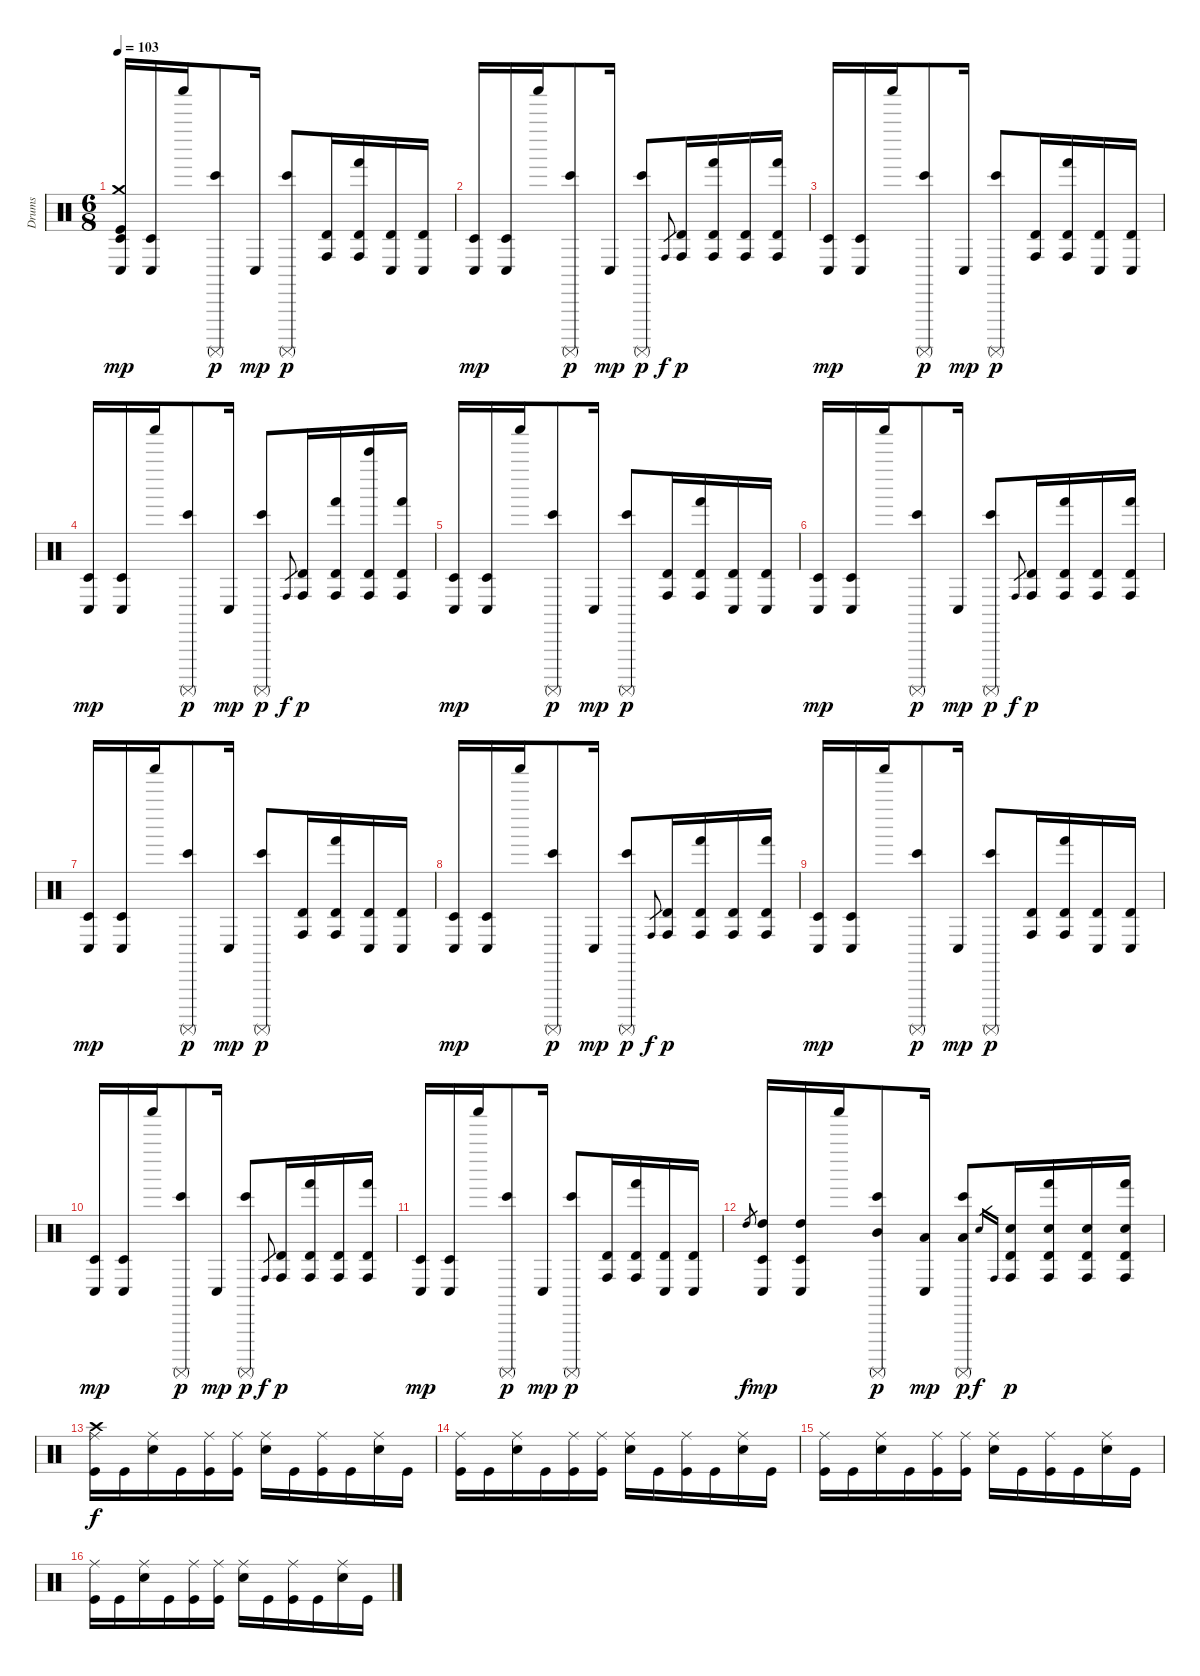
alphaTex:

\track ("Drums" "Drums") {instrument percussion}
\staff {score}
\articulation defaults
\ts (6 8)
\tempo 103
\clef neutral
\ks c
("Crash medium (hit)" "Timbale low (hit)" "Conga low (hit)" "Kick (hit)").16{dy mp} ("Timbale low (hit)" "Conga low (hit)").16 "Shaker (hit)".16 ("Surdo (mute)" "Bongo High (hit)").8{dy p} "Conga low (hit)".16{dy mp} ("Surdo (mute)" "Bongo High (hit)").8{dy p} ("Timbale high (hit)" "Conga high (hit)").16 ("Timbale high (hit)" "Conga high (hit)" "Hand (hit)").16 ("Timbale high (hit)" "Conga low (hit)").16 ("Timbale high (hit)" "Conga low (hit)").16 |
("Timbale low (hit)" "Conga low (hit)").16{dy mp} ("Timbale low (hit)" "Conga low (hit)").16 "Shaker (hit)".16 ("Surdo (mute)" "Bongo High (hit)").8{dy p} "Conga low (hit)".16{dy mp} ("Surdo (mute)" "Bongo High (hit)").8{dy p} "Conga high (hit)".8{gr dy f} ("Timbale high (hit)" "Conga high (hit)").16{dy p} ("Timbale high (hit)" "Conga high (hit)" "Hand (hit)").16 ("Timbale high (hit)" "Conga high (hit)").16 ("Timbale high (hit)" "Conga high (hit)" "Hand (hit)").16 |
("Timbale low (hit)" "Conga low (hit)").16{dy mp} ("Timbale low (hit)" "Conga low (hit)").16 "Shaker (hit)".16 ("Surdo (mute)" "Bongo High (hit)").8{dy p} "Conga low (hit)".16{dy mp} ("Surdo (mute)" "Bongo High (hit)").8{dy p} ("Timbale high (hit)" "Conga high (hit)").16 ("Timbale high (hit)" "Conga high (hit)" "Hand (hit)").16 ("Timbale high (hit)" "Conga low (hit)").16 ("Timbale high (hit)" "Conga low (hit)").16 |
("Timbale low (hit)" "Conga low (hit)").16{dy mp} ("Timbale low (hit)" "Conga low (hit)").16 "Shaker (hit)".16 ("Surdo (mute)" "Bongo High (hit)").8{dy p} "Conga low (hit)".16{dy mp} ("Surdo (mute)" "Bongo High (hit)").8{dy p} "Conga high (hit)".8{gr dy f} ("Timbale high (hit)" "Conga high (hit)").16{dy p} ("Timbale high (hit)" "Conga high (hit)" "Hand (hit)").16 ("Bell Tree (hit)" "Timbale high (hit)" "Conga high (hit)").16 ("Timbale high (hit)" "Conga high (hit)" "Hand (hit)").16 |
("Timbale low (hit)" "Conga low (hit)").16{dy mp} ("Timbale low (hit)" "Conga low (hit)").16 "Shaker (hit)".16 ("Surdo (mute)" "Bongo High (hit)").8{dy p} "Conga low (hit)".16{dy mp} ("Surdo (mute)" "Bongo High (hit)").8{dy p} ("Timbale high (hit)" "Conga high (hit)").16 ("Timbale high (hit)" "Conga high (hit)" "Hand (hit)").16 ("Timbale high (hit)" "Conga low (hit)").16 ("Timbale high (hit)" "Conga low (hit)").16 |
("Timbale low (hit)" "Conga low (hit)").16{dy mp} ("Timbale low (hit)" "Conga low (hit)").16 "Shaker (hit)".16 ("Surdo (mute)" "Bongo High (hit)").8{dy p} "Conga low (hit)".16{dy mp} ("Surdo (mute)" "Bongo High (hit)").8{dy p} "Conga high (hit)".8{gr dy f} ("Timbale high (hit)" "Conga high (hit)").16{dy p} ("Timbale high (hit)" "Conga high (hit)" "Hand (hit)").16 ("Timbale high (hit)" "Conga high (hit)").16 ("Timbale high (hit)" "Conga high (hit)" "Hand (hit)").16 |
("Timbale low (hit)" "Conga low (hit)").16{dy mp} ("Timbale low (hit)" "Conga low (hit)").16 "Shaker (hit)".16 ("Surdo (mute)" "Bongo High (hit)").8{dy p} "Conga low (hit)".16{dy mp} ("Surdo (mute)" "Bongo High (hit)").8{dy p} ("Timbale high (hit)" "Conga high (hit)").16 ("Timbale high (hit)" "Conga high (hit)" "Hand (hit)").16 ("Timbale high (hit)" "Conga low (hit)").16 ("Timbale high (hit)" "Conga low (hit)").16 |
("Timbale low (hit)" "Conga low (hit)").16{dy mp} ("Timbale low (hit)" "Conga low (hit)").16 "Shaker (hit)".16 ("Surdo (mute)" "Bongo High (hit)").8{dy p} "Conga low (hit)".16{dy mp} ("Surdo (mute)" "Bongo High (hit)").8{dy p} "Conga high (hit)".8{gr dy f} ("Timbale high (hit)" "Conga high (hit)").16{dy p} ("Timbale high (hit)" "Conga high (hit)" "Hand (hit)").16 ("Timbale high (hit)" "Conga high (hit)").16 ("Timbale high (hit)" "Conga high (hit)" "Hand (hit)").16 |
("Timbale low (hit)" "Conga low (hit)").16{dy mp} ("Timbale low (hit)" "Conga low (hit)").16 "Shaker (hit)".16 ("Surdo (mute)" "Bongo High (hit)").8{dy p} "Conga low (hit)".16{dy mp} ("Surdo (mute)" "Bongo High (hit)").8{dy p} ("Timbale high (hit)" "Conga high (hit)").16 ("Timbale high (hit)" "Conga high (hit)" "Hand (hit)").16 ("Timbale high (hit)" "Conga low (hit)").16 ("Timbale high (hit)" "Conga low (hit)").16 |
("Timbale low (hit)" "Conga low (hit)").16{dy mp} ("Timbale low (hit)" "Conga low (hit)").16 "Shaker (hit)".16 ("Surdo (mute)" "Bongo High (hit)").8{dy p} "Conga low (hit)".16{dy mp} ("Surdo (mute)" "Bongo High (hit)").8{dy p} "Conga high (hit)".8{gr dy f} ("Timbale high (hit)" "Conga high (hit)").16{dy p} ("Timbale high (hit)" "Conga high (hit)" "Hand (hit)").16 ("Timbale high (hit)" "Conga high (hit)").16 ("Timbale high (hit)" "Conga high (hit)" "Hand (hit)").16 |
("Timbale low (hit)" "Conga low (hit)").16{dy mp} ("Timbale low (hit)" "Conga low (hit)").16 "Shaker (hit)".16 ("Surdo (mute)" "Bongo High (hit)").8{dy p} "Conga low (hit)".16{dy mp} ("Surdo (mute)" "Bongo High (hit)").8{dy p} ("Timbale high (hit)" "Conga high (hit)").16 ("Timbale high (hit)" "Conga high (hit)" "Hand (hit)").16 ("Timbale high (hit)" "Conga low (hit)").16 ("Timbale high (hit)" "Conga low (hit)").16 |
"High Tom (hit)".8{gr dy f} ("High Tom (hit)" "Timbale low (hit)" "Conga low (hit)").16{dy mp} ("High Tom (hit)" "Timbale low (hit)" "Conga low (hit)").16 "Shaker (hit)".16 ("Mid Tom (hit)" "Surdo (mute)" "Bongo High (hit)").8{dy p} ("Low Tom (hit)" "Conga low (hit)").16{dy mp} ("Low Tom (hit)" "Surdo (mute)" "Bongo High (hit)").8{dy p} "Electric Snare (hit)".16{gr dy f} "Conga high (hit)".16{gr} ("Electric Snare (hit)" "Timbale high (hit)" "Conga high (hit)").16{dy p} ("Electric Snare (hit)" "Timbale high (hit)" "Conga high (hit)" "Hand (hit)").16 ("Electric Snare (hit)" "Timbale high (hit)" "Conga high (hit)").16 ("Electric Snare (hit)" "Timbale high (hit)" "Conga high (hit)" "Hand (hit)").16 |
("Crash high (hit)" "Ride (middle)" "Kick (hit)").16{dy f} "Kick (hit)".16 ("Ride (middle)" "Electric Snare (hit)").16 "Kick (hit)".16 ("Ride (middle)" "Kick (hit)").16 ("Ride (middle)" "Kick (hit)").16 ("Ride (middle)" "Electric Snare (hit)").16 "Kick (hit)".16 ("Ride (middle)" "Kick (hit)").16 "Kick (hit)".16 ("Ride (middle)" "Electric Snare (hit)").16 "Kick (hit)".16 |
("Ride (middle)" "Kick (hit)").16 "Kick (hit)".16 ("Ride (middle)" "Electric Snare (hit)").16 "Kick (hit)".16 ("Ride (middle)" "Kick (hit)").16 ("Ride (middle)" "Kick (hit)").16 ("Ride (middle)" "Electric Snare (hit)").16 "Kick (hit)".16 ("Ride (middle)" "Kick (hit)").16 "Kick (hit)".16 ("Ride (middle)" "Electric Snare (hit)").16 "Kick (hit)".16 |
("Ride (middle)" "Kick (hit)").16 "Kick (hit)".16 ("Ride (middle)" "Electric Snare (hit)").16 "Kick (hit)".16 ("Ride (middle)" "Kick (hit)").16 ("Ride (middle)" "Kick (hit)").16 ("Ride (middle)" "Electric Snare (hit)").16 "Kick (hit)".16 ("Ride (middle)" "Kick (hit)").16 "Kick (hit)".16 ("Ride (middle)" "Electric Snare (hit)").16 "Kick (hit)".16 |
("Ride (middle)" "Kick (hit)").16 "Kick (hit)".16 ("Ride (middle)" "Electric Snare (hit)").16 "Kick (hit)".16 ("Ride (middle)" "Kick (hit)").16 ("Ride (middle)" "Kick (hit)").16 ("Ride (middle)" "Electric Snare (hit)").16 "Kick (hit)".16 ("Ride (middle)" "Kick (hit)").16 "Kick (hit)".16 ("Ride (middle)" "Electric Snare (hit)").16 "Kick (hit)".16
